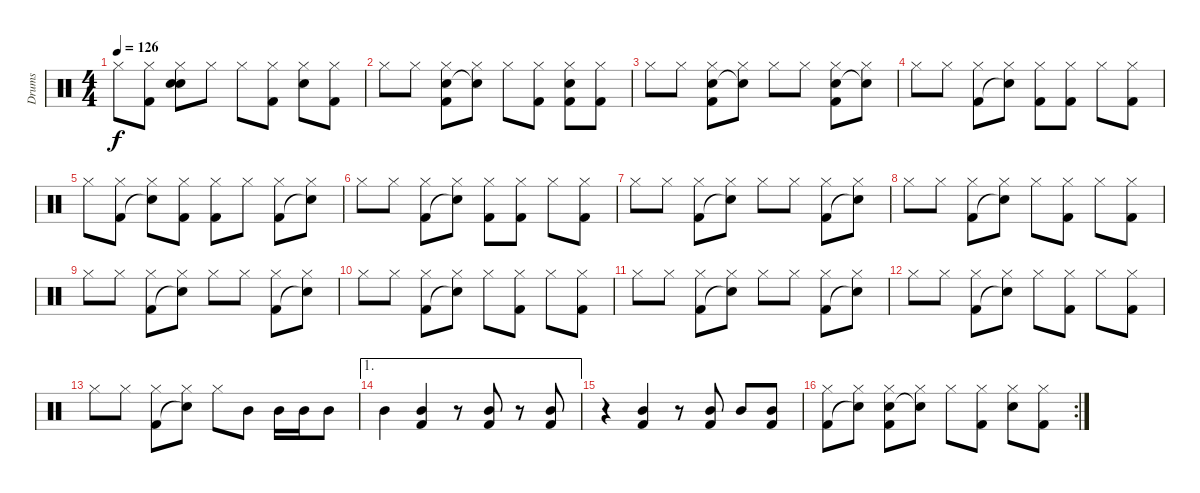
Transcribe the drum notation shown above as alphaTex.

\track ("Drums" "Drums") {instrument percussion}
\staff {score}
\articulation defaults
\ts (4 4)
\tempo 126
\clef neutral
\ks c "Hi-Hat (closed)".8{dy f}
("Hi-Hat (closed)" "Kick (hit) 2").8 ("Hi-Hat (closed)" "Snare (hit) 2" "Snare (hit)"{t}).8 "Hi-Hat (closed)".8 "Hi-Hat (closed)".8 ("Hi-Hat (closed)" "Kick (hit) 2").8 ("Hi-Hat (closed)" "Snare (hit) 2").8 ("Hi-Hat (closed)" "Kick (hit) 2").8 |
"Hi-Hat (closed)".8 "Hi-Hat (closed)".8 ("Hi-Hat (closed)" "Snare (hit) 2" "Kick (hit) 2").8 ("Hi-Hat (closed)" "Snare (hit)"{t}).8 "Hi-Hat (closed)".8 ("Hi-Hat (closed)" "Kick (hit) 2").8 ("Hi-Hat (closed)" "Snare (hit) 2" "Kick (hit) 2").8 ("Hi-Hat (closed)" "Kick (hit) 2").8 |
"Hi-Hat (closed)".8 "Hi-Hat (closed)".8 ("Hi-Hat (closed)" "Snare (hit) 2" "Kick (hit) 2").8 ("Hi-Hat (closed)" "Snare (hit)"{t}).8 "Hi-Hat (closed)".8 "Hi-Hat (closed)".8 ("Hi-Hat (closed)" "Snare (hit) 2" "Kick (hit) 2").8 ("Hi-Hat (closed)" "Snare (hit)"{t}).8 |
"Hi-Hat (closed)".8 "Hi-Hat (closed)".8 ("Hi-Hat (closed)" "Kick (hit) 2").8 ("Hi-Hat (closed)" "Snare (hit)"{t}).8 ("Hi-Hat (closed)" "Kick (hit) 2").8 ("Hi-Hat (closed)" "Kick (hit) 2").8 "Hi-Hat (closed)".8 ("Hi-Hat (closed)" "Kick (hit) 2").8 |
"Hi-Hat (closed)".8 ("Hi-Hat (closed)" "Kick (hit) 2").8 ("Hi-Hat (closed)" "Snare (hit)"{t}).8 ("Hi-Hat (closed)" "Kick (hit) 2").8 ("Hi-Hat (closed)" "Kick (hit) 2").8 "Hi-Hat (closed)".8 ("Hi-Hat (closed)" "Kick (hit) 2").8 ("Hi-Hat (closed)" "Snare (hit)"{t}).8 |
"Hi-Hat (closed)".8 "Hi-Hat (closed)".8 ("Hi-Hat (closed)" "Kick (hit) 2").8 ("Hi-Hat (closed)" "Snare (hit)"{t}).8 ("Hi-Hat (closed)" "Kick (hit) 2").8 ("Hi-Hat (closed)" "Kick (hit) 2").8 "Hi-Hat (closed)".8 ("Hi-Hat (closed)" "Kick (hit) 2").8 |
"Hi-Hat (closed)".8 "Hi-Hat (closed)".8 ("Hi-Hat (closed)" "Kick (hit) 2").8 ("Hi-Hat (closed)" "Snare (hit)"{t}).8 "Hi-Hat (closed)".8 "Hi-Hat (closed)".8 ("Hi-Hat (closed)" "Kick (hit) 2").8 ("Hi-Hat (closed)" "Snare (hit)"{t}).8 |
"Hi-Hat (closed)".8 "Hi-Hat (closed)".8 ("Hi-Hat (closed)" "Kick (hit) 2").8 ("Hi-Hat (closed)" "Snare (hit)"{t}).8 "Hi-Hat (closed)".8 ("Hi-Hat (closed)" "Kick (hit) 2").8 "Hi-Hat (closed)".8 ("Hi-Hat (closed)" "Kick (hit) 2").8 |
"Hi-Hat (closed)".8 "Hi-Hat (closed)".8 ("Hi-Hat (closed)" "Kick (hit) 2").8 ("Hi-Hat (closed)" "Snare (hit)"{t}).8 "Hi-Hat (closed)".8 "Hi-Hat (closed)".8 ("Hi-Hat (closed)" "Kick (hit) 2").8 ("Hi-Hat (closed)" "Snare (hit)"{t}).8 |
"Hi-Hat (closed)".8 "Hi-Hat (closed)".8 ("Hi-Hat (closed)" "Kick (hit) 2").8 ("Hi-Hat (closed)" "Snare (hit)"{t}).8 "Hi-Hat (closed)".8 ("Hi-Hat (closed)" "Kick (hit) 2").8 "Hi-Hat (closed)".8 ("Hi-Hat (closed)" "Kick (hit) 2").8 |
"Hi-Hat (closed)".8 "Hi-Hat (closed)".8 ("Hi-Hat (closed)" "Kick (hit) 2").8 ("Hi-Hat (closed)" "Snare (hit)"{t}).8 "Hi-Hat (closed)".8 "Hi-Hat (closed)".8 ("Hi-Hat (closed)" "Kick (hit) 2").8 ("Hi-Hat (closed)" "Snare (hit)"{t}).8 |
"Hi-Hat (closed)".8 "Hi-Hat (closed)".8 ("Hi-Hat (closed)" "Kick (hit) 2").8 ("Hi-Hat (closed)" "Snare (hit)"{t}).8 "Hi-Hat (closed)".8 ("Hi-Hat (closed)" "Kick (hit) 2").8 "Hi-Hat (closed)".8 ("Hi-Hat (closed)" "Kick (hit) 2").8 |
"Hi-Hat (closed)".8 "Hi-Hat (closed)".8 ("Hi-Hat (closed)" "Kick (hit) 2").8 ("Hi-Hat (closed)" "Snare (hit)"{t}).8 "Hi-Hat (closed)".8 "Mid Tom (hit)".8 "Mid Tom (hit)".16 "Mid Tom (hit)".16 "Mid Tom (hit)".8 |
\ae 1 "Mid Tom (hit)".4
("Mid Tom (hit)" "Kick (hit) 2").4 r.8 ("Mid Tom (hit)" "Kick (hit) 2").8 r.8 ("Mid Tom (hit)" "Kick (hit) 2").8 |
r.4 ("Mid Tom (hit)" "Kick (hit) 2").4 r.8 ("Mid Tom (hit)" "Kick (hit) 2").8 "Mid Tom (hit)".8 ("Mid Tom (hit)" "Kick (hit) 2").8 |
\rc 2
("Hi-Hat (closed)" "Kick (hit) 2").8 ("Hi-Hat (closed)" "Snare (hit)"{t}).8 ("Hi-Hat (closed)" "Snare (hit) 2" "Kick (hit) 2").8 ("Hi-Hat (closed)" "Snare (hit)"{t}).8 "Hi-Hat (closed)".8 ("Hi-Hat (closed)" "Kick (hit) 2").8 ("Hi-Hat (closed)" "Snare (hit) 2").8 ("Hi-Hat (closed)" "Kick (hit) 2").8
